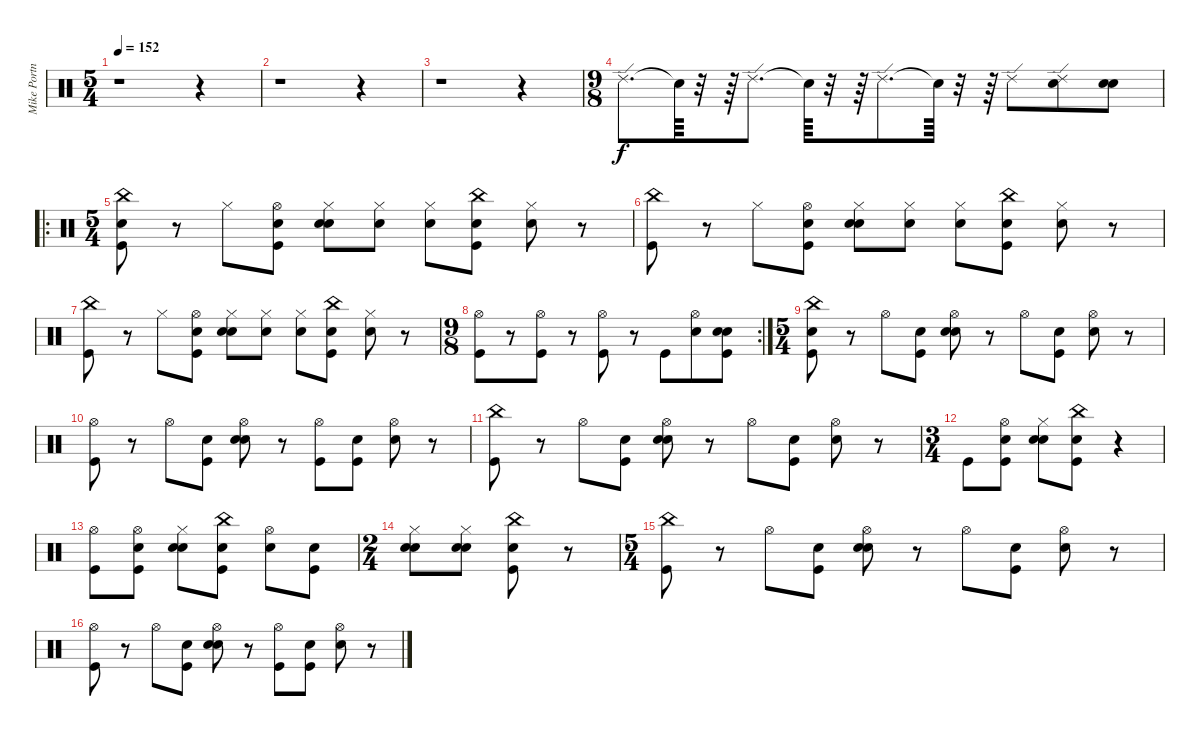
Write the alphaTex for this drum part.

\track ("Mike Portnoy" "Mike Portn") {instrument percussion}
\staff {score}
\articulation defaults
\ts (5 4)
\tempo 152
\clef neutral
\ks c
r.1{dy f} r.4 |
r.1 r.4 |
r.1 r.4 |
\ts (9 8)
"Ride (edge) 2".8{d} "Snare (hit)"{t}.64 r.32 r.64 "Ride (edge) 2".8{d} "Snare (hit)"{t}.64 r.32 r.64 "Ride (edge) 2".8{d} "Snare (hit)"{t}.64 r.32 r.64 "Ride (edge) 2".8 ("Snare (hit)" "Ride (edge) 2").8 ("Snare (hit)" "Snare (hit) 2").8 |
\ro
\ts (5 4)
("Snare (hit)" "Kick (hit)" "China (hit)").8 r.8 "Hi-Hat (closed)".8 ("Snare (hit)" "Kick (hit)" "Hi-Hat (open)").8 ("Snare (hit)" "Snare (hit) 2" "Hi-Hat (closed)").8 ("Snare (hit)" "Hi-Hat (closed)").8 ("Snare (hit)" "Hi-Hat (closed)").8 ("Snare (hit)" "Kick (hit)" "China (hit)").8 ("Snare (hit)" "Hi-Hat (closed)").8 r.8 |
("Kick (hit)" "China (hit)").8 r.8 "Hi-Hat (closed)".8 ("Snare (hit)" "Kick (hit)" "Hi-Hat (open)").8 ("Snare (hit)" "Snare (hit) 2" "Hi-Hat (closed)").8 ("Snare (hit)" "Hi-Hat (closed)").8 ("Snare (hit)" "Hi-Hat (closed)").8 ("Snare (hit)" "Kick (hit)" "China (hit)").8 ("Snare (hit)" "Hi-Hat (closed)").8 r.8 |
("Kick (hit)" "China (hit)").8 r.8 "Hi-Hat (closed)".8 ("Snare (hit)" "Kick (hit)" "Hi-Hat (open)").8 ("Snare (hit)" "Snare (hit) 2" "Hi-Hat (closed)").8 ("Snare (hit)" "Hi-Hat (closed)").8 ("Snare (hit)" "Hi-Hat (closed)").8 ("Snare (hit)" "Kick (hit)" "China (hit)").8 ("Snare (hit)" "Hi-Hat (closed)").8 r.8 |
\rc 2
\ts (9 8)
("Kick (hit)" "Hi-Hat (open)").8 r.8 ("Kick (hit)" "Hi-Hat (open)").8 r.8 ("Kick (hit)" "Hi-Hat (open)").8 r.8 "Kick (hit)".8 ("Snare (hit)" "Hi-Hat (open)").8 ("Snare (hit)" "Kick (hit)" "Snare (hit) 2").8 |
\ts (5 4)
("Snare (hit)" "Kick (hit)" "China (hit)").8 r.8 "Hi-Hat (open)".8 ("Snare (hit)" "Kick (hit)").8 ("Snare (hit)" "Snare (hit) 2" "Hi-Hat (open)").8 r.8 "Hi-Hat (open)".8 ("Snare (hit)" "Kick (hit)").8 ("Snare (hit)" "Hi-Hat (open)").8 r.8 |
("Kick (hit)" "Hi-Hat (open)").8 r.8 "Hi-Hat (open)".8 ("Snare (hit)" "Kick (hit)").8 ("Snare (hit)" "Snare (hit) 2" "Hi-Hat (open)").8 r.8 ("Kick (hit)" "Hi-Hat (open)").8 ("Snare (hit)" "Kick (hit)").8 ("Snare (hit)" "Hi-Hat (open)").8 r.8 |
("Kick (hit)" "China (hit)").8 r.8 "Hi-Hat (open)".8 ("Snare (hit)" "Kick (hit)").8 ("Snare (hit)" "Snare (hit) 2" "Hi-Hat (open)").8 r.8 "Hi-Hat (open)".8 ("Snare (hit)" "Kick (hit)").8 ("Snare (hit)" "Hi-Hat (open)").8 r.8 |
\ts (3 4)
"Kick (hit)".8 ("Snare (hit)" "Kick (hit)" "Hi-Hat (open)").8 ("Snare (hit)" "Snare (hit) 2" "Hi-Hat (closed)").8 ("Snare (hit)" "Kick (hit)" "China (hit)").8 r.4 |
("Kick (hit)" "Hi-Hat (open)").8 ("Snare (hit)" "Kick (hit)" "Hi-Hat (open)").8 ("Snare (hit)" "Snare (hit) 2" "Hi-Hat (closed)").8 ("Snare (hit)" "Kick (hit)" "China (hit)").8 ("Snare (hit)" "Hi-Hat (open)").8 ("Snare (hit)" "Kick (hit)").8 |
\ts (2 4)
("Snare (hit)" "Snare (hit) 2" "Hi-Hat (closed)").8 ("Snare (hit)" "Snare (hit) 2" "Hi-Hat (closed)").8 ("Snare (hit)" "Kick (hit)" "China (hit)").8 r.8 |
\ts (5 4)
("Kick (hit)" "China (hit)").8 r.8 "Hi-Hat (open)".8 ("Snare (hit)" "Kick (hit)").8 ("Snare (hit)" "Snare (hit) 2" "Hi-Hat (open)").8 r.8 "Hi-Hat (open)".8 ("Snare (hit)" "Kick (hit)").8 ("Snare (hit)" "Hi-Hat (open)").8 r.8 |
("Kick (hit)" "Hi-Hat (open)").8 r.8 "Hi-Hat (open)".8 ("Snare (hit)" "Kick (hit)").8 ("Snare (hit)" "Snare (hit) 2" "Hi-Hat (open)").8 r.8 ("Kick (hit)" "Hi-Hat (open)").8 ("Snare (hit)" "Kick (hit)").8 ("Snare (hit)" "Hi-Hat (open)").8 r.8
